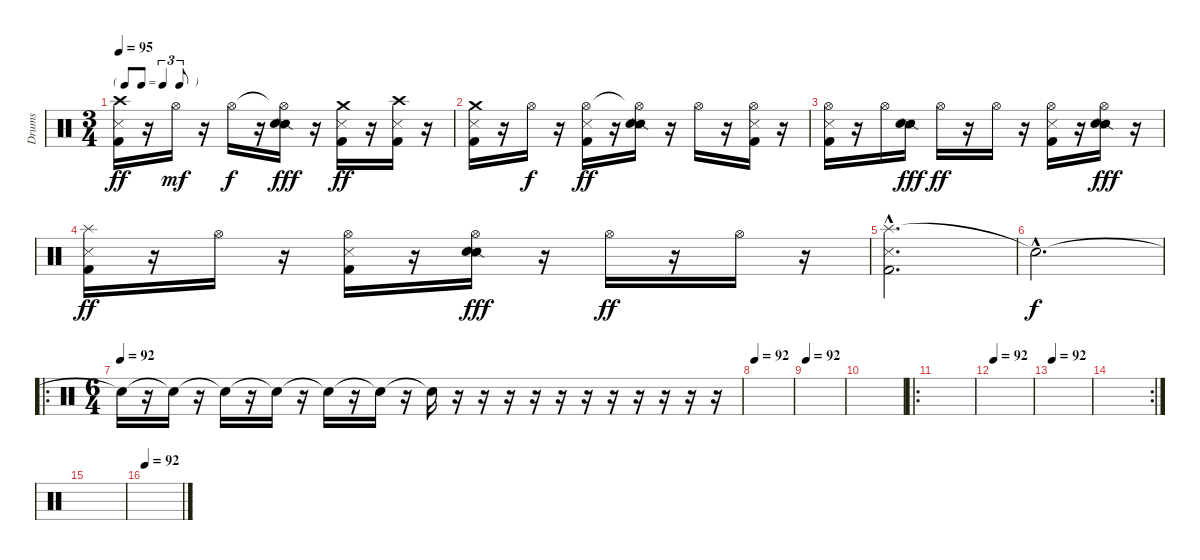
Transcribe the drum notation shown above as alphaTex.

\track ("Drums" "Drums") {instrument percussion}
\staff {score}
\articulation defaults
\ts (3 4)
\tf triplet8th
\tempo 95
\clef neutral
\ks c
("Crash high (hit)" "Metronome (hit)" "Kick (hit) 2").16{dy ff} r.16 "Hi-Hat (open)".16{dy mf} r.16 "Hi-Hat (open)".16{dy f} r.16 ("Hi-Hat (open)"{t} "Snare (side stick) 2" "Electric Snare (hit)").16{dy fff} r.16 ("Crash medium (hit)" "Metronome (hit)" "Kick (hit) 2").16{dy ff} r.16 ("Crash high (hit)" "Metronome (hit)" "Kick (hit) 2").16 r.16 |
("Crash medium (hit)" "Metronome (hit)" "Kick (hit) 2").16 r.16 "Hi-Hat (open)".16{dy f} r.16 ("Hi-Hat (open)" "Metronome (hit)" "Kick (hit) 2").16{dy ff} r.16 ("Hi-Hat (open)"{t} "Snare (side stick) 2" "Electric Snare (hit)").16 r.16 "Hi-Hat (open)".16 r.16 ("Hi-Hat (open)" "Metronome (hit)" "Kick (hit) 2").16 r.16 |
("Hi-Hat (open)" "Metronome (hit)" "Kick (hit) 2").16 r.16 "Hi-Hat (open)".16 ("Snare (side stick) 2" "Electric Snare (hit)").16{dy fff} "Hi-Hat (open)".16{dy ff} r.16 "Hi-Hat (open)".16 r.16 ("Hi-Hat (open)" "Metronome (hit)" "Kick (hit) 2").16 r.16 ("Hi-Hat (open)" "Snare (side stick) 2" "Electric Snare (hit)").16{dy fff} r.16 |
("Splash (hit)" "Metronome (hit)" "Kick (hit) 2").16{dy ff} r.16 "Hi-Hat (open)".16 r.16 ("Hi-Hat (open)" "Metronome (hit)" "Kick (hit) 2").16 r.16 ("Hi-Hat (open)" "Snare (side stick) 2" "Electric Snare (hit)").16{dy fff} r.16 "Hi-Hat (open)".16{dy ff} r.16 "Hi-Hat (open)".16 r.16 |
("Splash (hit)"{hac} "Metronome (hit)"{hac} "Kick (hit) 2"{hac}).2{d} |
"Snare (hit)"{hac t}.2{d dy f} |
\ro
\ts (6 4)
\tempo (92)
"Snare (hit)"{t}.16 r.16 "Snare (hit)"{t}.16 r.16 "Snare (hit)"{t}.16 r.16 "Snare (hit)"{t}.16 r.16 "Snare (hit)"{t}.16 r.16 "Snare (hit)"{t}.16 r.16 "Snare (hit)"{t}.16 r.16 r.16 r.16 r.16 r.16 r.16 r.16 r.16 r.16 r.16 r.16 |
\tempo 92
|
\tempo 92
|
|
\ro
|
\tempo 92
|
\tempo 92
|
\rc 2
|
|
\tempo 92
